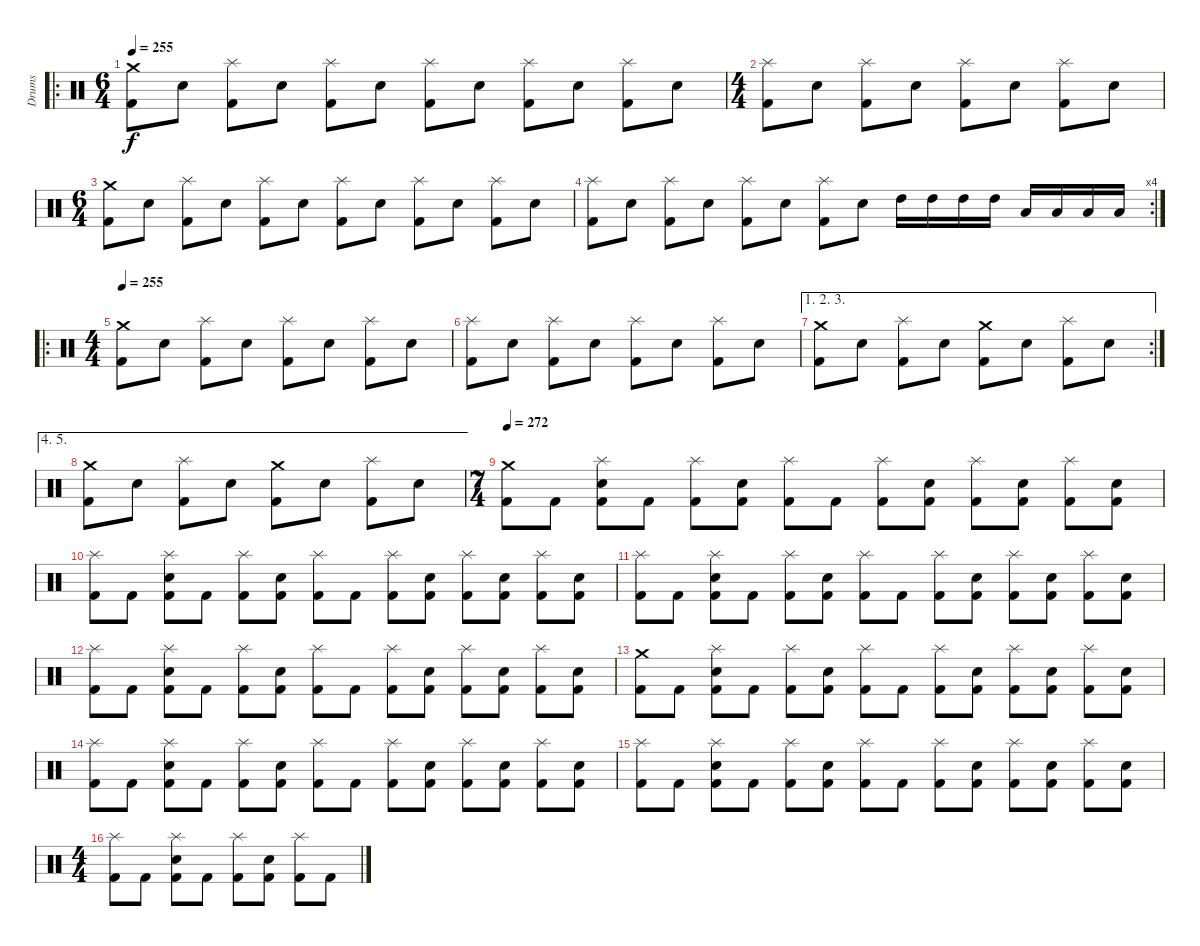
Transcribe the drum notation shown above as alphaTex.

\track ("Drums" "Drums") {instrument percussion}
\staff {score}
\articulation defaults
\ro
\ts (6 4)
\tempo 255
\clef neutral
\ks c
("Crash medium (hit)" "Kick (hit) 2").8{dy f} "Snare (hit) 2".8 ("Splash (hit)" "Kick (hit) 2").8 "Snare (hit) 2".8 ("Splash (hit)" "Kick (hit) 2").8 "Snare (hit) 2".8 ("Splash (hit)" "Kick (hit) 2").8 "Snare (hit) 2".8 ("Splash (hit)" "Kick (hit) 2").8 "Snare (hit) 2".8 ("Splash (hit)" "Kick (hit) 2").8 "Snare (hit) 2".8 |
\ts (4 4)
("Splash (hit)" "Kick (hit) 2").8 "Snare (hit) 2".8 ("Splash (hit)" "Kick (hit) 2").8 "Snare (hit) 2".8 ("Splash (hit)" "Kick (hit) 2").8 "Snare (hit) 2".8 ("Splash (hit)" "Kick (hit) 2").8 "Snare (hit) 2".8 |
\ts (6 4)
("Crash medium (hit)" "Kick (hit) 2").8 "Snare (hit) 2".8 ("Splash (hit)" "Kick (hit) 2").8 "Snare (hit) 2".8 ("Splash (hit)" "Kick (hit) 2").8 "Snare (hit) 2".8 ("Splash (hit)" "Kick (hit) 2").8 "Snare (hit) 2".8 ("Splash (hit)" "Kick (hit) 2").8 "Snare (hit) 2".8 ("Splash (hit)" "Kick (hit) 2").8 "Snare (hit) 2".8 |
\rc 4
("Splash (hit)" "Kick (hit) 2").8 "Snare (hit) 2".8 ("Splash (hit)" "Kick (hit) 2").8 "Snare (hit) 2".8 ("Splash (hit)" "Kick (hit) 2").8 "Snare (hit) 2".8 ("Splash (hit)" "Kick (hit) 2").8 "Snare (hit) 2".8 "High Tom (hit)".16 "High Tom (hit)".16 "High Tom (hit)".16 "High Tom (hit)".16 "Low Tom (hit)".16 "Low Tom (hit)".16 "Low Tom (hit)".16 "Low Tom (hit)".16 |
\ro
\ts (4 4)
\tempo 255
("Crash medium (hit)" "Kick (hit) 2").8 "Snare (hit) 2".8 ("Splash (hit)" "Kick (hit) 2").8 "Snare (hit) 2".8 ("Splash (hit)" "Kick (hit) 2").8 "Snare (hit) 2".8 ("Splash (hit)" "Kick (hit) 2").8 "Snare (hit) 2".8 |
("Splash (hit)" "Kick (hit) 2").8 "Snare (hit) 2".8 ("Splash (hit)" "Kick (hit) 2").8 "Snare (hit) 2".8 ("Splash (hit)" "Kick (hit) 2").8 "Snare (hit) 2".8 ("Splash (hit)" "Kick (hit) 2").8 "Snare (hit) 2".8 |
\ae (1 2 3)
\rc 2
("Crash medium (hit)" "Kick (hit) 2").8 "Snare (hit) 2".8 ("Splash (hit)" "Kick (hit) 2").8 "Snare (hit) 2".8 ("Crash medium (hit)" "Kick (hit) 2").8 "Snare (hit) 2".8 ("Splash (hit)" "Kick (hit) 2").8 "Snare (hit) 2".8 |
\ae (4 5)
("Crash medium (hit)" "Kick (hit) 2").8 "Snare (hit) 2".8 ("Splash (hit)" "Kick (hit) 2").8 "Snare (hit) 2".8 ("Crash medium (hit)" "Kick (hit) 2").8 "Snare (hit) 2".8 ("Splash (hit)" "Kick (hit) 2").8 "Snare (hit) 2".8 |
\ts (7 4)
\tempo 272
("Crash medium (hit)" "Kick (hit) 2").8 "Kick (hit) 2".8 ("Splash (hit)" "Snare (hit) 2" "Kick (hit) 2").8 "Kick (hit) 2".8 ("Splash (hit)" "Kick (hit) 2").8 ("Snare (hit) 2" "Kick (hit) 2").8 ("Splash (hit)" "Kick (hit) 2").8 "Kick (hit) 2".8 ("Splash (hit)" "Kick (hit) 2").8 ("Snare (hit) 2" "Kick (hit) 2").8 ("Splash (hit)" "Kick (hit) 2").8 ("Snare (hit) 2" "Kick (hit) 2").8 ("Splash (hit)" "Kick (hit) 2").8 ("Snare (hit) 2" "Kick (hit) 2").8 |
("Splash (hit)" "Kick (hit) 2").8 "Kick (hit) 2".8 ("Splash (hit)" "Snare (hit) 2" "Kick (hit) 2").8 "Kick (hit) 2".8 ("Splash (hit)" "Kick (hit) 2").8 ("Snare (hit) 2" "Kick (hit) 2").8 ("Splash (hit)" "Kick (hit) 2").8 "Kick (hit) 2".8 ("Splash (hit)" "Kick (hit) 2").8 ("Snare (hit) 2" "Kick (hit) 2").8 ("Splash (hit)" "Kick (hit) 2").8 ("Snare (hit) 2" "Kick (hit) 2").8 ("Splash (hit)" "Kick (hit) 2").8 ("Snare (hit) 2" "Kick (hit) 2").8 |
("Splash (hit)" "Kick (hit) 2").8 "Kick (hit) 2".8 ("Splash (hit)" "Snare (hit) 2" "Kick (hit) 2").8 "Kick (hit) 2".8 ("Splash (hit)" "Kick (hit) 2").8 ("Snare (hit) 2" "Kick (hit) 2").8 ("Splash (hit)" "Kick (hit) 2").8 "Kick (hit) 2".8 ("Splash (hit)" "Kick (hit) 2").8 ("Snare (hit) 2" "Kick (hit) 2").8 ("Splash (hit)" "Kick (hit) 2").8 ("Snare (hit) 2" "Kick (hit) 2").8 ("Splash (hit)" "Kick (hit) 2").8 ("Snare (hit) 2" "Kick (hit) 2").8 |
("Splash (hit)" "Kick (hit) 2").8 "Kick (hit) 2".8 ("Splash (hit)" "Snare (hit) 2" "Kick (hit) 2").8 "Kick (hit) 2".8 ("Splash (hit)" "Kick (hit) 2").8 ("Snare (hit) 2" "Kick (hit) 2").8 ("Splash (hit)" "Kick (hit) 2").8 "Kick (hit) 2".8 ("Splash (hit)" "Kick (hit) 2").8 ("Snare (hit) 2" "Kick (hit) 2").8 ("Splash (hit)" "Kick (hit) 2").8 ("Snare (hit) 2" "Kick (hit) 2").8 ("Splash (hit)" "Kick (hit) 2").8 ("Snare (hit) 2" "Kick (hit) 2").8 |
("Crash medium (hit)" "Kick (hit) 2").8 "Kick (hit) 2".8 ("Splash (hit)" "Snare (hit) 2" "Kick (hit) 2").8 "Kick (hit) 2".8 ("Splash (hit)" "Kick (hit) 2").8 ("Snare (hit) 2" "Kick (hit) 2").8 ("Splash (hit)" "Kick (hit) 2").8 "Kick (hit) 2".8 ("Splash (hit)" "Kick (hit) 2").8 ("Snare (hit) 2" "Kick (hit) 2").8 ("Splash (hit)" "Kick (hit) 2").8 ("Snare (hit) 2" "Kick (hit) 2").8 ("Splash (hit)" "Kick (hit) 2").8 ("Snare (hit) 2" "Kick (hit) 2").8 |
("Splash (hit)" "Kick (hit) 2").8 "Kick (hit) 2".8 ("Splash (hit)" "Snare (hit) 2" "Kick (hit) 2").8 "Kick (hit) 2".8 ("Splash (hit)" "Kick (hit) 2").8 ("Snare (hit) 2" "Kick (hit) 2").8 ("Splash (hit)" "Kick (hit) 2").8 "Kick (hit) 2".8 ("Splash (hit)" "Kick (hit) 2").8 ("Snare (hit) 2" "Kick (hit) 2").8 ("Splash (hit)" "Kick (hit) 2").8 ("Snare (hit) 2" "Kick (hit) 2").8 ("Splash (hit)" "Kick (hit) 2").8 ("Snare (hit) 2" "Kick (hit) 2").8 |
("Splash (hit)" "Kick (hit) 2").8 "Kick (hit) 2".8 ("Splash (hit)" "Snare (hit) 2" "Kick (hit) 2").8 "Kick (hit) 2".8 ("Splash (hit)" "Kick (hit) 2").8 ("Snare (hit) 2" "Kick (hit) 2").8 ("Splash (hit)" "Kick (hit) 2").8 "Kick (hit) 2".8 ("Splash (hit)" "Kick (hit) 2").8 ("Snare (hit) 2" "Kick (hit) 2").8 ("Splash (hit)" "Kick (hit) 2").8 ("Snare (hit) 2" "Kick (hit) 2").8 ("Splash (hit)" "Kick (hit) 2").8 ("Snare (hit) 2" "Kick (hit) 2").8 |
\ts (4 4)
("Splash (hit)" "Kick (hit) 2").8 "Kick (hit) 2".8 ("Splash (hit)" "Snare (hit) 2" "Kick (hit) 2").8 "Kick (hit) 2".8 ("Splash (hit)" "Kick (hit) 2").8 ("Snare (hit) 2" "Kick (hit) 2").8 ("Splash (hit)" "Kick (hit) 2").8 "Kick (hit) 2".8
